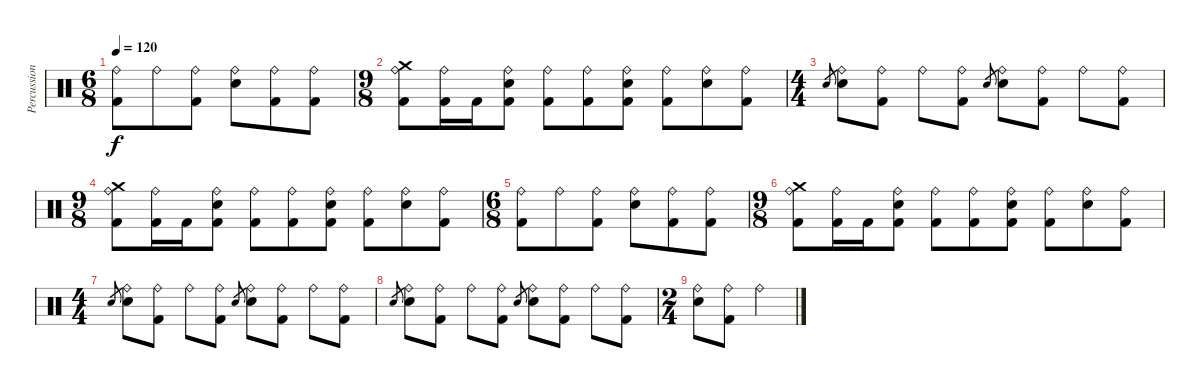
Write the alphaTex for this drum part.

\track ("Percussion" "Percussion") {instrument percussion}
\staff {score}
\articulation defaults
\ts (6 8)
\tempo 120
\clef neutral
\ks c
("Ride (bell)" "Kick (hit) 2").8{dy f} "Ride (bell)".8 ("Ride (bell)" "Kick (hit) 2").8 ("Ride (bell)" "Electric Snare (hit)").8 ("Ride (bell)" "Kick (hit) 2").8 ("Ride (bell)" "Kick (hit) 2").8 |
\ts (9 8)
("Crash medium (hit)" "Ride (bell)" "Kick (hit) 2").8 ("Ride (bell)" "Kick (hit) 2").16 "Kick (hit) 2".16 ("Ride (bell)" "Electric Snare (hit)" "Kick (hit) 2").8 ("Ride (bell)" "Kick (hit) 2").8 ("Ride (bell)" "Kick (hit) 2").8 ("Ride (bell)" "Electric Snare (hit)" "Kick (hit) 2").8 ("Ride (bell)" "Kick (hit) 2").8 ("Ride (bell)" "Electric Snare (hit)").8 ("Ride (bell)" "Kick (hit) 2").8 |
\ts (4 4)
"Electric Snare (hit)".8{gr} ("Ride (bell)" "Electric Snare (hit)").8 ("Ride (bell)" "Kick (hit) 2").8 "Ride (bell)".8 ("Ride (bell)" "Kick (hit) 2").8 "Electric Snare (hit)".8{gr} ("Ride (bell)" "Electric Snare (hit)").8 ("Ride (bell)" "Kick (hit) 2").8 "Ride (bell)".8 ("Ride (bell)" "Kick (hit) 2").8 |
\ts (9 8)
("Crash medium (hit)" "Ride (bell)" "Kick (hit) 2").8 ("Ride (bell)" "Kick (hit) 2").16 "Kick (hit) 2".16 ("Ride (bell)" "Electric Snare (hit)" "Kick (hit) 2").8 ("Ride (bell)" "Kick (hit) 2").8 ("Ride (bell)" "Kick (hit) 2").8 ("Ride (bell)" "Electric Snare (hit)" "Kick (hit) 2").8 ("Ride (bell)" "Kick (hit) 2").8 ("Ride (bell)" "Electric Snare (hit)").8 ("Ride (bell)" "Kick (hit) 2").8 |
\ts (6 8)
("Ride (bell)" "Kick (hit) 2").8 "Ride (bell)".8 ("Ride (bell)" "Kick (hit) 2").8 ("Ride (bell)" "Electric Snare (hit)").8 ("Ride (bell)" "Kick (hit) 2").8 ("Ride (bell)" "Kick (hit) 2").8 |
\ts (9 8)
("Crash medium (hit)" "Ride (bell)" "Kick (hit) 2").8 ("Ride (bell)" "Kick (hit) 2").16 "Kick (hit) 2".16 ("Ride (bell)" "Electric Snare (hit)" "Kick (hit) 2").8 ("Ride (bell)" "Kick (hit) 2").8 ("Ride (bell)" "Kick (hit) 2").8 ("Ride (bell)" "Electric Snare (hit)" "Kick (hit) 2").8 ("Ride (bell)" "Kick (hit) 2").8 ("Ride (bell)" "Electric Snare (hit)").8 ("Ride (bell)" "Kick (hit) 2").8 |
\ts (4 4)
"Electric Snare (hit)".8{gr} ("Ride (bell)" "Electric Snare (hit)").8 ("Ride (bell)" "Kick (hit) 2").8 "Ride (bell)".8 ("Ride (bell)" "Kick (hit) 2").8 "Electric Snare (hit)".8{gr} ("Ride (bell)" "Electric Snare (hit)").8 ("Ride (bell)" "Kick (hit) 2").8 "Ride (bell)".8 ("Ride (bell)" "Kick (hit) 2").8 |
"Electric Snare (hit)".8{gr} ("Ride (bell)" "Electric Snare (hit)").8 ("Ride (bell)" "Kick (hit) 2").8 "Ride (bell)".8 ("Ride (bell)" "Kick (hit) 2").8 "Electric Snare (hit)".8{gr} ("Ride (bell)" "Electric Snare (hit)").8 ("Ride (bell)" "Kick (hit) 2").8 "Ride (bell)".8 ("Ride (bell)" "Kick (hit) 2").8 |
\ts (2 4)
("Ride (bell)" "Electric Snare (hit)").8 ("Ride (bell)" "Kick (hit) 2").8 "Ride (bell)".4
